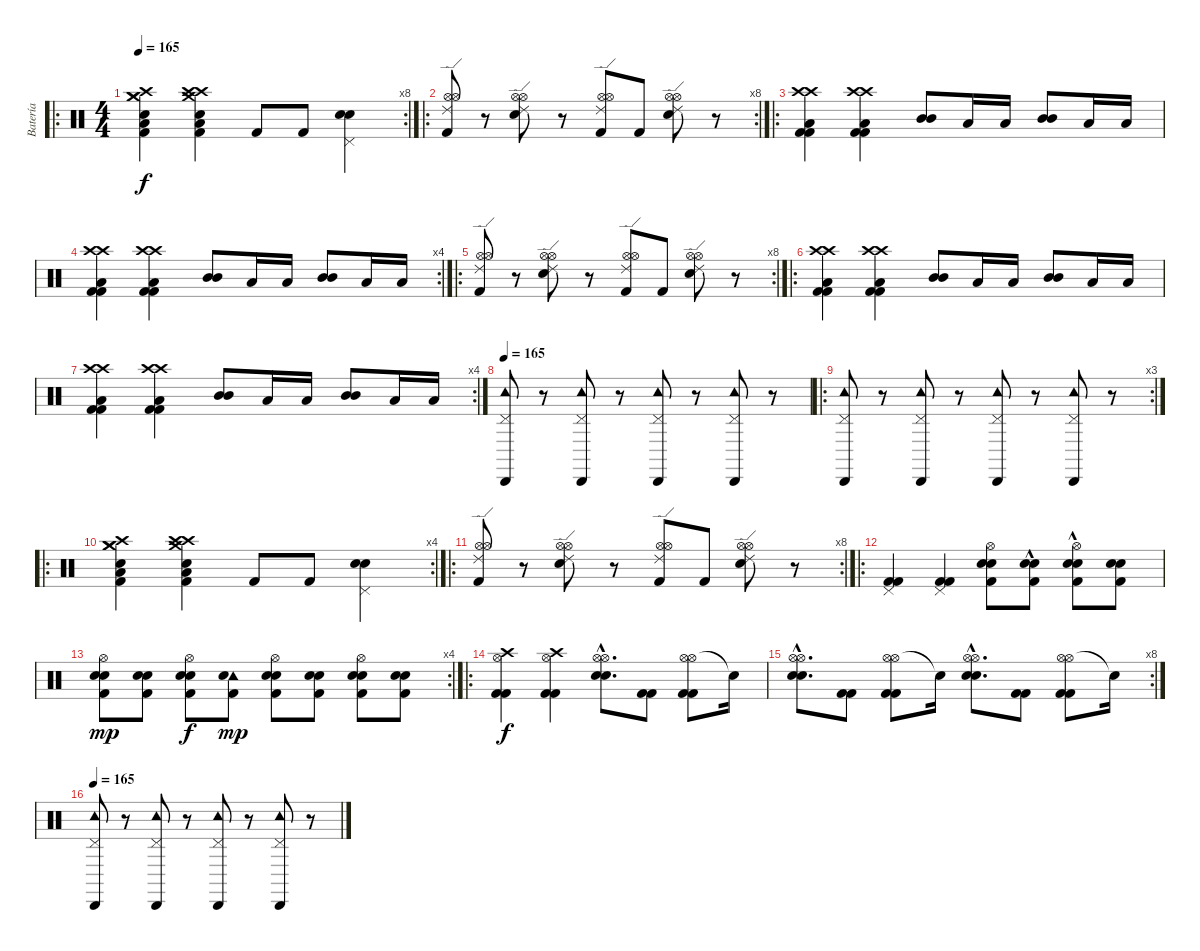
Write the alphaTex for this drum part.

\track ("Batería" "Batería") {instrument percussion}
\staff {score}
\articulation defaults
\ro
\rc 8
\ts (4 4)
\tempo 165
\clef neutral
\ks c
("Crash high (hit)" "Crash medium (hit)" "Crash medium (hit)" "Low Tom (hit)" "Snare (hit) 2" "Kick (hit) 2").4{dy f} ("Crash high (hit)" "Crash high (hit)" "Crash medium (hit)" "Low Tom (hit)" "Snare (hit) 2" "Kick (hit) 2").4 "Kick (hit) 2".8 "Kick (hit) 2".8 ("Pedal Hi-Hat (hit)" "Snare (hit) 2" "Electric Snare (hit)").4 |
\ro
\rc 8
("Hi-Hat (open)" "Hi-Hat (open)" "Ride (edge) 2" "Kick (hit) 2").8 r.8 ("Snare (hit) 2" "Hi-Hat (open)" "Hi-Hat (open)" "Ride (edge) 2").8 r.8 ("Hi-Hat (open)" "Hi-Hat (open)" "Ride (edge) 2" "Kick (hit) 2").8 "Kick (hit) 2".8 ("Snare (hit) 2" "Hi-Hat (open)" "Hi-Hat (open)" "Ride (edge) 2").8 r.8 |
\ro
("Crash high (hit)" "Crash high (hit)" "Low Floor Tom (hit)" "Kick (hit) 2" "Kick (hit) 2").4 ("Crash high (hit)" "Crash high (hit)" "Low Floor Tom (hit)" "Kick (hit) 2" "Kick (hit) 2").4 ("Mid Tom (hit)" "Mid Tom (hit)").8 "Low Tom (hit)".16 "Low Tom (hit)".16 ("Mid Tom (hit)" "Mid Tom (hit)").8 "Low Tom (hit)".16 "Low Tom (hit)".16 |
\rc 4
("Crash high (hit)" "Crash high (hit)" "Low Floor Tom (hit)" "Kick (hit) 2" "Kick (hit) 2").4 ("Crash high (hit)" "Crash high (hit)" "Low Floor Tom (hit)" "Kick (hit) 2" "Kick (hit) 2").4 ("Mid Tom (hit)" "Mid Tom (hit)").8 "Low Tom (hit)".16 "Low Tom (hit)".16 ("Mid Tom (hit)" "Mid Tom (hit)").8 "Low Tom (hit)".16 "Low Tom (hit)".16 |
\ro
\rc 8
("Hi-Hat (open)" "Hi-Hat (open)" "Ride (edge) 2" "Kick (hit) 2").8 r.8 ("Snare (hit) 2" "Hi-Hat (open)" "Hi-Hat (open)" "Ride (edge) 2").8 r.8 ("Hi-Hat (open)" "Hi-Hat (open)" "Ride (edge) 2" "Kick (hit) 2").8 "Kick (hit) 2".8 ("Snare (hit) 2" "Hi-Hat (open)" "Hi-Hat (open)" "Ride (edge) 2").8 r.8 |
\ro
("Crash high (hit)" "Crash high (hit)" "Low Floor Tom (hit)" "Kick (hit) 2" "Kick (hit) 2").4 ("Crash high (hit)" "Crash high (hit)" "Low Floor Tom (hit)" "Kick (hit) 2" "Kick (hit) 2").4 ("Mid Tom (hit)" "Mid Tom (hit)").8 "Low Tom (hit)".16 "Low Tom (hit)".16 ("Mid Tom (hit)" "Mid Tom (hit)").8 "Low Tom (hit)".16 "Low Tom (hit)".16 |
\rc 4
("Crash high (hit)" "Crash high (hit)" "Low Floor Tom (hit)" "Kick (hit) 2" "Kick (hit) 2").4 ("Crash high (hit)" "Crash high (hit)" "Low Floor Tom (hit)" "Kick (hit) 2" "Kick (hit) 2").4 ("Mid Tom (hit)" "Mid Tom (hit)").8 "Low Tom (hit)".16 "Low Tom (hit)".16 ("Mid Tom (hit)" "Mid Tom (hit)").8 "Low Tom (hit)".16 "Low Tom (hit)".16 |
\tempo 165
("Tambourine (hit)" "Cabasa (hit)" "Pedal Hi-Hat (hit)").8 r.8 ("Tambourine (hit)" "Cabasa (hit)" "Pedal Hi-Hat (hit)").8 r.8 ("Tambourine (hit)" "Cabasa (hit)" "Pedal Hi-Hat (hit)").8 r.8 ("Tambourine (hit)" "Cabasa (hit)" "Pedal Hi-Hat (hit)").8 r.8 |
\ro
\rc 3
("Tambourine (hit)" "Cabasa (hit)" "Pedal Hi-Hat (hit)").8 r.8 ("Tambourine (hit)" "Cabasa (hit)" "Pedal Hi-Hat (hit)").8 r.8 ("Tambourine (hit)" "Cabasa (hit)" "Pedal Hi-Hat (hit)").8 r.8 ("Tambourine (hit)" "Cabasa (hit)" "Pedal Hi-Hat (hit)").8 r.8 |
\ro
\rc 4
("Crash high (hit)" "Crash medium (hit)" "Crash medium (hit)" "Low Tom (hit)" "Snare (hit) 2" "Kick (hit) 2").4 ("Crash high (hit)" "Crash high (hit)" "Crash medium (hit)" "Low Tom (hit)" "Snare (hit) 2" "Kick (hit) 2").4 "Kick (hit) 2".8 "Kick (hit) 2".8 ("Pedal Hi-Hat (hit)" "Snare (hit) 2" "Electric Snare (hit)").4 |
\ro
\rc 8
("Hi-Hat (open)" "Hi-Hat (open)" "Ride (edge) 2" "Kick (hit) 2").8 r.8 ("Snare (hit) 2" "Hi-Hat (open)" "Hi-Hat (open)" "Ride (edge) 2").8 r.8 ("Hi-Hat (open)" "Hi-Hat (open)" "Ride (edge) 2" "Kick (hit) 2").8 "Kick (hit) 2".8 ("Snare (hit) 2" "Hi-Hat (open)" "Hi-Hat (open)" "Ride (edge) 2").8 r.8 |
\ro
("Pedal Hi-Hat (hit)" "Kick (hit) 2" "Kick (hit) 2").4 ("Pedal Hi-Hat (hit)" "Kick (hit) 2" "Kick (hit) 2").4 ("Hi-Hat (open)" "Electric Snare (hit)" "Electric Snare (hit)" "Kick (hit) 2").8 ("Snare (hit) 2" "Snare (hit) 2"{hac} "Kick (hit) 2").8 ("Hi-Hat (open)" "Snare (hit) 2" "Snare (hit) 2"{hac} "Kick (hit) 2").8 ("Electric Snare (hit)" "Electric Snare (hit)" "Kick (hit) 2").8 |
\rc 4
("Hi-Hat (open)" "Snare (hit) 2" "Snare (hit) 2" "Kick (hit) 2").8{dy mp} ("Snare (hit) 2" "Snare (hit) 2" "Kick (hit) 2").8 ("Hi-Hat (open)" "Electric Snare (hit)" "Electric Snare (hit)" "Kick (hit) 2").8{dy f} ("Tambourine (hit)" "Snare (hit) 2" "Kick (hit) 2").8{dy mp} ("Hi-Hat (open)" "Snare (hit) 2" "Snare (hit) 2" "Kick (hit) 2").8 ("Snare (hit) 2" "Snare (hit) 2" "Kick (hit) 2").8 ("Hi-Hat (open)" "Snare (hit) 2" "Snare (hit) 2" "Kick (hit) 2").8 ("Electric Snare (hit)" "Electric Snare (hit)" "Kick (hit) 2").8 |
\ro
("Hi-Hat (open)" "Crash high (hit)" "Kick (hit) 2" "Kick (hit) 2").4{dy f} ("Hi-Hat (open)" "Crash high (hit)" "Kick (hit) 2" "Kick (hit) 2").4 ("Hi-Hat (open)"{hac} "Hi-Hat (open)"{hac} "Snare (hit) 2"{hac} "Electric Snare (hit)"{hac}).8{d} ("Kick (hit) 2" "Kick (hit) 2").8 ("Hi-Hat (open)" "Hi-Hat (open)" "Kick (hit) 2" "Kick (hit) 2").8 "Snare (hit)"{t}.16 |
\rc 8
("Hi-Hat (open)"{hac} "Hi-Hat (open)"{hac} "Snare (hit) 2"{hac} "Electric Snare (hit)"{hac}).8{d} ("Kick (hit) 2" "Kick (hit) 2").8 ("Hi-Hat (open)" "Hi-Hat (open)" "Kick (hit) 2" "Kick (hit) 2").8 "Snare (hit)"{t}.16 ("Hi-Hat (open)"{hac} "Hi-Hat (open)"{hac} "Snare (hit) 2"{hac} "Electric Snare (hit)"{hac}).8{d} ("Kick (hit) 2" "Kick (hit) 2").8 ("Hi-Hat (open)" "Hi-Hat (open)" "Kick (hit) 2" "Kick (hit) 2").8 "Snare (hit)"{t}.16 |
\tempo 165
("Tambourine (hit)" "Cabasa (hit)" "Pedal Hi-Hat (hit)").8 r.8 ("Tambourine (hit)" "Cabasa (hit)" "Pedal Hi-Hat (hit)").8 r.8 ("Tambourine (hit)" "Cabasa (hit)" "Pedal Hi-Hat (hit)").8 r.8 ("Tambourine (hit)" "Cabasa (hit)" "Pedal Hi-Hat (hit)").8 r.8
